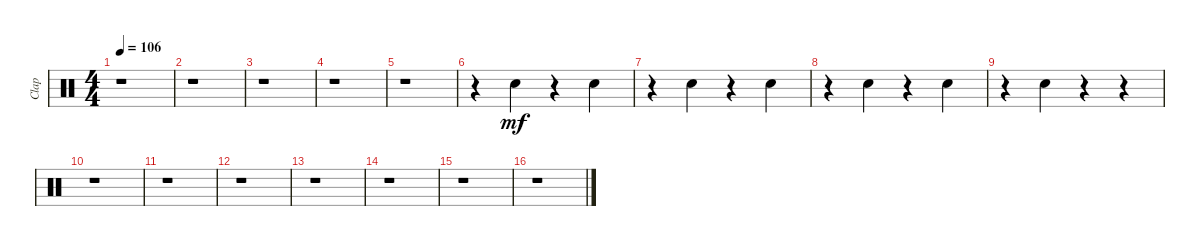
\track ("Clap" "Clap") {instrument percussion}
\staff {score}
\articulation defaults
\ts (4 4)
\tempo 106
\clef neutral
\ks c
r.1{dy mf} |
r.1 |
r.1 |
r.1 |
r.1 |
r.4 "Hand Clap (hit)".4 r.4 "Hand Clap (hit)".4 |
r.4 "Hand Clap (hit)".4 r.4 "Hand Clap (hit)".4 |
r.4 "Hand Clap (hit)".4 r.4 "Hand Clap (hit)".4 |
r.4 "Hand Clap (hit)".4 r.4 r.4 |
r.1 |
r.1 |
r.1 |
r.1 |
r.1 |
r.1 |
r.1
